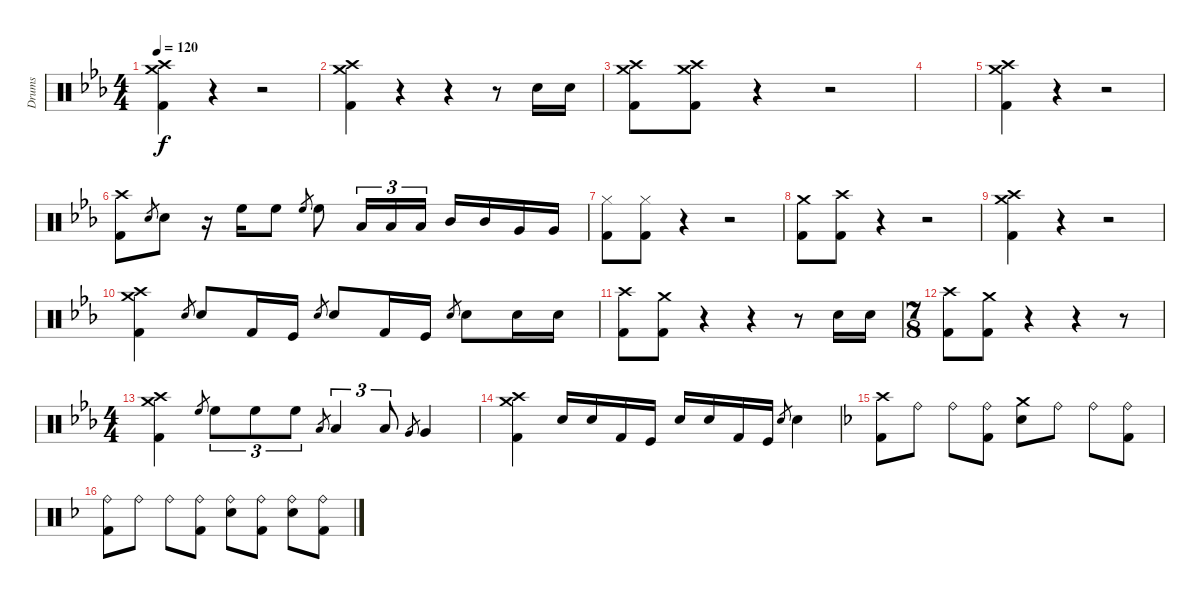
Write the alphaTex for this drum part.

\track ("Drums" "Drums") {instrument percussion}
\staff {score}
\articulation defaults
\ts (4 4)
\tempo 120
\clef neutral
\ks eb
("Crash high (hit)" "Crash medium (hit)" "Kick (hit) 2").4{dy f} r.4 r.2 |
("Crash high (hit)" "Crash medium (hit)" "Kick (hit) 2").4 r.4 r.4 r.8 "Electric Snare (hit)".16 "Electric Snare (hit)".16 |
("Crash high (hit)" "Crash medium (hit)" "Kick (hit) 2").8 ("Crash high (hit)" "Crash medium (hit)" "Kick (hit) 2").8 r.4 r.2 |
|
("Crash high (hit)" "Crash medium (hit)" "Kick (hit) 2").4 r.4 r.2 |
("Crash high (hit)" "Kick (hit) 2").8 "Electric Snare (hit)".8{gr} "Electric Snare (hit)".8 r.16 "High Floor Tom (hit)".16 "High Floor Tom (hit)".8 "High Floor Tom (hit)".8{gr} "High Floor Tom (hit)".8 "Low Tom (hit)".16{tu (3 2)} "Low Tom (hit)".16{tu (3 2)} "Low Tom (hit)".16{tu (3 2)} "Mid Tom (hit)".16 "Mid Tom (hit)".16 "Very Low Tom (hit)".16 "Very Low Tom (hit)".16 |
("Hi-Hat (closed)" "Kick (hit) 2").8 ("Hi-Hat (closed)" "Kick (hit) 2").8 r.4 r.2 |
("Crash medium (hit)" "Kick (hit) 2").8 ("Crash high (hit)" "Kick (hit) 2").8 r.4 r.2 |
("Crash high (hit)" "Crash medium (hit)" "Kick (hit) 2").4 r.4 r.2 |
("Crash high (hit)" "Crash medium (hit)" "Kick (hit) 2").4 "Electric Snare (hit)".8{gr} "Electric Snare (hit)".8 "Kick (hit) 2".16 "Kick (hit)".16 "Electric Snare (hit)".8{gr} "Electric Snare (hit)".8 "Kick (hit) 2".16 "Kick (hit)".16 "Electric Snare (hit)".8{gr} "Electric Snare (hit)".8 "Electric Snare (hit)".16 "Electric Snare (hit)".16 |
("Crash high (hit)" "Kick (hit) 2").8 ("Crash medium (hit)" "Kick (hit) 2").8 r.4 r.4 r.8 "Electric Snare (hit)".16 "Electric Snare (hit)".16 |
\ts (7 8)
("Crash high (hit)" "Kick (hit) 2").8 ("Crash medium (hit)" "Kick (hit) 2").8 r.4 r.4 r.8 |
\ts (4 4)
("Crash high (hit)" "Crash medium (hit)" "Kick (hit) 2").4 "High Floor Tom (hit)".8{gr} "High Floor Tom (hit)".8{tu (3 2)} "High Floor Tom (hit)".8{tu (3 2)} "High Floor Tom (hit)".8{tu (3 2)} "Low Tom (hit)".8{gr} "Low Tom (hit)".4{tu (3 2)} "Low Tom (hit)".8{tu (3 2)} "Very Low Tom (hit)".8{gr} "Very Low Tom (hit)".4 |
("Crash high (hit)" "Crash medium (hit)" "Kick (hit) 2").4 "Electric Snare (hit)".16 "Electric Snare (hit)".16 "Kick (hit) 2".16 "Kick (hit)".16 "Electric Snare (hit)".16 "Electric Snare (hit)".16 "Kick (hit) 2".16 "Kick (hit)".16 "Electric Snare (hit)".8{gr} "Electric Snare (hit)".4 |
\ks f
("Crash high (hit)" "Kick (hit) 2").8 "Ride (bell)".8 "Ride (bell)".8 ("Ride (bell)" "Kick (hit) 2").8 ("Crash medium (hit)" "Electric Snare (hit)").8 "Ride (bell)".8 "Ride (bell)".8 ("Ride (bell)" "Kick (hit) 2").8 |
("Ride (bell)" "Kick (hit) 2").8 "Ride (bell)".8 "Ride (bell)".8 ("Ride (bell)" "Kick (hit) 2").8 ("Ride (bell)" "Electric Snare (hit)").8 ("Ride (bell)" "Kick (hit) 2").8 ("Ride (bell)" "Electric Snare (hit)").8 ("Ride (bell)" "Kick (hit) 2").8
